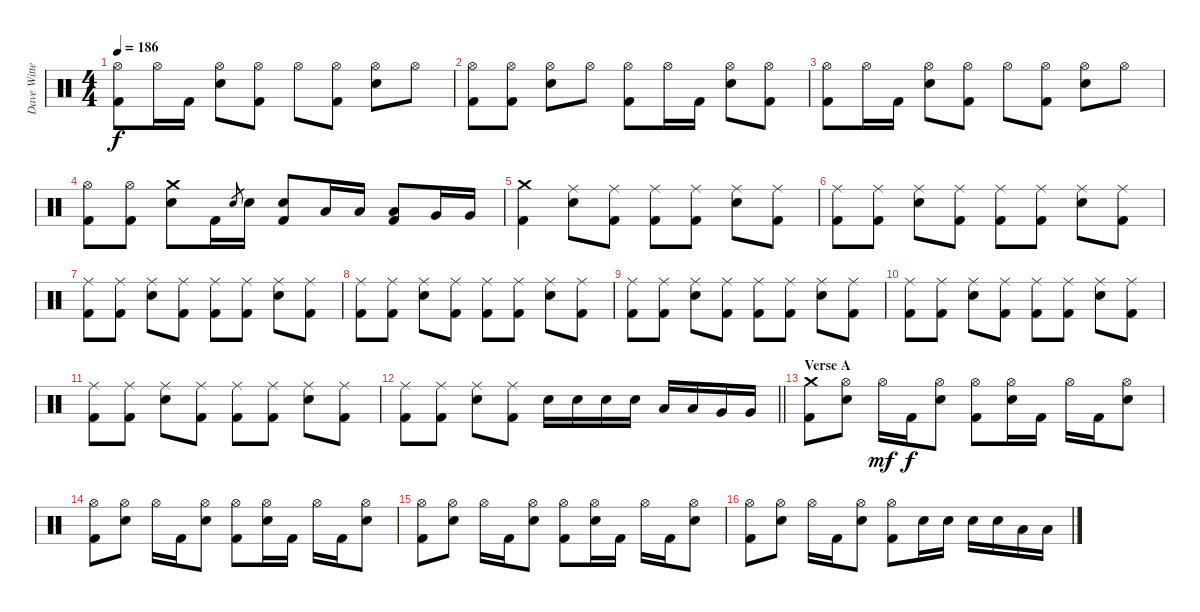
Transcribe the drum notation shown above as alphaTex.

\track ("Dave Witte" "Dave Witte") {instrument percussion}
\staff {score}
\articulation defaults
\ts (4 4)
\tempo 186
\clef neutral
\ks c
("Hi-Hat (open)" "Kick (hit) 2").8{dy f} "Hi-Hat (open)".16 "Kick (hit) 2".16 ("Hi-Hat (open)" "Electric Snare (hit)").8 ("Hi-Hat (open)" "Kick (hit) 2").8 "Hi-Hat (open)".8 ("Hi-Hat (open)" "Kick (hit) 2").8 ("Hi-Hat (open)" "Electric Snare (hit)").8 "Hi-Hat (open)".8 |
("Hi-Hat (open)" "Kick (hit) 2").8 ("Hi-Hat (open)" "Kick (hit) 2").8 ("Hi-Hat (open)" "Electric Snare (hit)").8 "Hi-Hat (open)".8 ("Hi-Hat (open)" "Kick (hit) 2").8 "Hi-Hat (open)".16 "Kick (hit) 2".16 ("Hi-Hat (open)" "Electric Snare (hit)").8 ("Hi-Hat (open)" "Kick (hit) 2").8 |
("Hi-Hat (open)" "Kick (hit) 2").8 "Hi-Hat (open)".16 "Kick (hit) 2".16 ("Hi-Hat (open)" "Electric Snare (hit)").8 ("Hi-Hat (open)" "Kick (hit) 2").8 "Hi-Hat (open)".8 ("Hi-Hat (open)" "Kick (hit) 2").8 ("Hi-Hat (open)" "Electric Snare (hit)").8 "Hi-Hat (open)".8 |
("Hi-Hat (open)" "Kick (hit) 2").8 ("Hi-Hat (open)" "Kick (hit) 2").8 ("Crash medium (hit)" "Electric Snare (hit)").8 "Kick (hit) 2".16 "Electric Snare (hit)".8{gr} "Electric Snare (hit)".16 ("Electric Snare (hit)" "Kick (hit) 2").8 "Low Tom (hit)".16 "Low Tom (hit)".16 ("Low Tom (hit)" "Kick (hit) 2").8 "Very Low Tom (hit)".16 "Very Low Tom (hit)".16 |
("Crash medium (hit)" "Kick (hit) 2").4 ("Ride (middle)" "Electric Snare (hit)").8 ("Ride (middle)" "Kick (hit) 2").8 ("Ride (middle)" "Kick (hit) 2").8 ("Ride (middle)" "Kick (hit) 2").8 ("Ride (middle)" "Electric Snare (hit)").8 ("Ride (middle)" "Kick (hit) 2").8 |
("Ride (middle)" "Kick (hit) 2").8 ("Ride (middle)" "Kick (hit) 2").8 ("Ride (middle)" "Electric Snare (hit)").8 ("Ride (middle)" "Kick (hit) 2").8 ("Ride (middle)" "Kick (hit) 2").8 ("Ride (middle)" "Kick (hit) 2").8 ("Ride (middle)" "Electric Snare (hit)").8 ("Ride (middle)" "Kick (hit) 2").8 |
("Ride (middle)" "Kick (hit) 2").8 ("Ride (middle)" "Kick (hit) 2").8 ("Ride (middle)" "Electric Snare (hit)").8 ("Ride (middle)" "Kick (hit) 2").8 ("Ride (middle)" "Kick (hit) 2").8 ("Ride (middle)" "Kick (hit) 2").8 ("Ride (middle)" "Electric Snare (hit)").8 ("Ride (middle)" "Kick (hit) 2").8 |
("Ride (middle)" "Kick (hit) 2").8 ("Ride (middle)" "Kick (hit) 2").8 ("Ride (middle)" "Electric Snare (hit)").8 ("Ride (middle)" "Kick (hit) 2").8 ("Ride (middle)" "Kick (hit) 2").8 ("Ride (middle)" "Kick (hit) 2").8 ("Ride (middle)" "Electric Snare (hit)").8 ("Ride (middle)" "Kick (hit) 2").8 |
("Ride (middle)" "Kick (hit) 2").8 ("Ride (middle)" "Kick (hit) 2").8 ("Ride (middle)" "Electric Snare (hit)").8 ("Ride (middle)" "Kick (hit) 2").8 ("Ride (middle)" "Kick (hit) 2").8 ("Ride (middle)" "Kick (hit) 2").8 ("Ride (middle)" "Electric Snare (hit)").8 ("Ride (middle)" "Kick (hit) 2").8 |
("Ride (middle)" "Kick (hit) 2").8 ("Ride (middle)" "Kick (hit) 2").8 ("Ride (middle)" "Electric Snare (hit)").8 ("Ride (middle)" "Kick (hit) 2").8 ("Ride (middle)" "Kick (hit) 2").8 ("Ride (middle)" "Kick (hit) 2").8 ("Ride (middle)" "Electric Snare (hit)").8 ("Ride (middle)" "Kick (hit) 2").8 |
("Ride (middle)" "Kick (hit) 2").8 ("Ride (middle)" "Kick (hit) 2").8 ("Ride (middle)" "Electric Snare (hit)").8 ("Ride (middle)" "Kick (hit) 2").8 ("Ride (middle)" "Kick (hit) 2").8 ("Ride (middle)" "Kick (hit) 2").8 ("Ride (middle)" "Electric Snare (hit)").8 ("Ride (middle)" "Kick (hit) 2").8 |
\barLineRight lightlight
("Ride (middle)" "Kick (hit) 2").8 ("Ride (middle)" "Kick (hit) 2").8 ("Ride (middle)" "Electric Snare (hit)").8 ("Ride (middle)" "Kick (hit) 2").8 "Electric Snare (hit)".16 "Electric Snare (hit)".16 "Electric Snare (hit)".16 "Electric Snare (hit)".16 "Low Tom (hit)".16 "Low Tom (hit)".16 "Very Low Tom (hit)".16 "Very Low Tom (hit)".16 |
\section ("" "Verse A")
("Crash medium (hit)" "Kick (hit) 2").8 ("Hi-Hat (open)" "Electric Snare (hit)").8 "Hi-Hat (open)".16{dy mf} "Kick (hit) 2".16{dy f} ("Hi-Hat (open)" "Electric Snare (hit)").8 ("Hi-Hat (open)" "Kick (hit) 2").8 ("Hi-Hat (open)" "Electric Snare (hit)").16 "Kick (hit) 2".16 "Hi-Hat (open)".16 "Kick (hit) 2".16 ("Hi-Hat (open)" "Electric Snare (hit)").8 |
("Hi-Hat (open)" "Kick (hit) 2").8 ("Hi-Hat (open)" "Electric Snare (hit)").8 "Hi-Hat (open)".16 "Kick (hit) 2".16 ("Hi-Hat (open)" "Electric Snare (hit)").8 ("Hi-Hat (open)" "Kick (hit) 2").8 ("Hi-Hat (open)" "Electric Snare (hit)").16 "Kick (hit) 2".16 "Hi-Hat (open)".16 "Kick (hit) 2".16 ("Hi-Hat (open)" "Electric Snare (hit)").8 |
("Hi-Hat (open)" "Kick (hit) 2").8 ("Hi-Hat (open)" "Electric Snare (hit)").8 "Hi-Hat (open)".16 "Kick (hit) 2".16 ("Hi-Hat (open)" "Electric Snare (hit)").8 ("Hi-Hat (open)" "Kick (hit) 2").8 ("Hi-Hat (open)" "Electric Snare (hit)").16 "Kick (hit) 2".16 "Hi-Hat (open)".16 "Kick (hit) 2".16 ("Hi-Hat (open)" "Electric Snare (hit)").8 |
("Hi-Hat (open)" "Kick (hit) 2").8 ("Hi-Hat (open)" "Electric Snare (hit)").8 "Hi-Hat (open)".16 "Kick (hit) 2".16 ("Hi-Hat (open)" "Electric Snare (hit)").8 ("Hi-Hat (open)" "Kick (hit) 2").8 "Electric Snare (hit)".16 "Electric Snare (hit)".16 "Electric Snare (hit)".16 "Electric Snare (hit)".16 "Low Tom (hit)".16 "Low Tom (hit)".16
